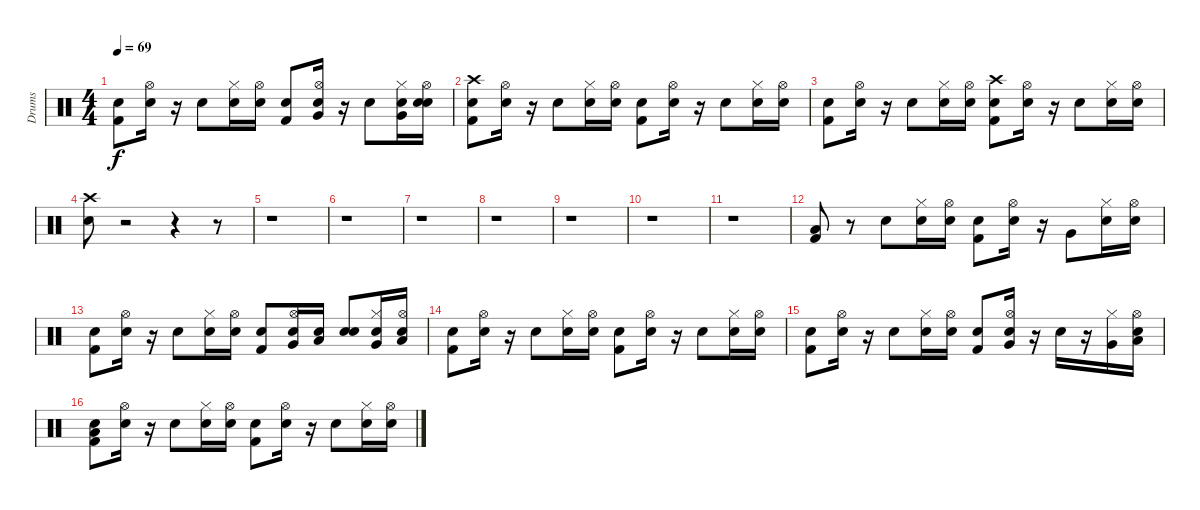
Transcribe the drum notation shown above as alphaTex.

\track ("Drums" "Drums") {instrument percussion}
\staff {score}
\articulation defaults
\ts (4 4)
\tempo 69
\clef neutral
\ks c
("Snare (hit)" "Kick (hit) 2").8{dy f} ("Snare (hit)" "Hi-Hat (open)").16 r.16 "Snare (hit) 2".8 ("Snare (hit)" "Hi-Hat (closed)").16 ("Snare (hit)" "Hi-Hat (open)").16 ("Snare (hit)" "Kick (hit) 2").8 ("Snare (hit)" "Very Low Tom (hit)" "Hi-Hat (open)").16 r.16 "Snare (hit) 2".8 ("Snare (hit)" "Very Low Tom (hit)" "Hi-Hat (closed)").16 ("Snare (hit)" "Snare (hit) 2" "Hi-Hat (open)").16 |
("Snare (hit)" "Crash high (hit)" "Kick (hit) 2").8 ("Snare (hit)" "Hi-Hat (open)").16 r.16 "Snare (hit) 2".8 ("Snare (hit)" "Hi-Hat (closed)").16 ("Snare (hit)" "Hi-Hat (open)").16 ("Snare (hit)" "Kick (hit) 2").8 ("Snare (hit)" "Hi-Hat (open)").16 r.16 "Snare (hit) 2".8 ("Snare (hit)" "Hi-Hat (closed)").16 ("Snare (hit)" "Hi-Hat (open)").16 |
("Snare (hit)" "Kick (hit) 2").8 ("Snare (hit)" "Hi-Hat (open)").16 r.16 "Snare (hit) 2".8 ("Snare (hit)" "Hi-Hat (closed)").16 ("Snare (hit)" "Hi-Hat (open)").16 ("Snare (hit)" "Crash high (hit)" "Kick (hit) 2").8 ("Snare (hit)" "Hi-Hat (open)").16 r.16 "Snare (hit) 2".8 ("Snare (hit)" "Hi-Hat (closed)").16 ("Snare (hit)" "Hi-Hat (open)").16 |
("Snare (hit)" "Crash high (hit)").8 r.2 r.4 r.8 |
r.1 |
r.1 |
r.1 |
r.1 |
r.1 |
r.1 |
r.1 |
("Low Floor Tom (hit)" "Kick (hit) 2").8 r.8 "Snare (hit) 2".8 ("Snare (hit)" "Hi-Hat (closed)").16 ("Snare (hit)" "Hi-Hat (open)").16 ("Snare (hit)" "Kick (hit) 2").8 ("Snare (hit)" "Hi-Hat (open)").16 r.16 "Very Low Tom (hit)".8 ("Snare (hit)" "Hi-Hat (closed)").16 ("Snare (hit)" "Hi-Hat (open)").16 |
("Snare (hit)" "Kick (hit) 2").8 ("Snare (hit)" "Hi-Hat (open)").16 r.16 "Snare (hit) 2".8 ("Snare (hit)" "Hi-Hat (closed)").16 ("Snare (hit)" "Hi-Hat (open)").16 ("Snare (hit)" "Kick (hit) 2").8 ("Snare (hit)" "Very Low Tom (hit)" "Hi-Hat (open)").16 ("Snare (hit)" "Low Floor Tom (hit)").16 ("Snare (hit)" "Snare (hit) 2").8 ("Snare (hit)" "Very Low Tom (hit)" "Hi-Hat (closed)").16 ("Snare (hit)" "Low Tom (hit)" "Hi-Hat (open)").16 |
("Snare (hit)" "Kick (hit) 2").8 ("Snare (hit)" "Hi-Hat (open)").16 r.16 "Snare (hit) 2".8 ("Snare (hit)" "Hi-Hat (closed)").16 ("Snare (hit)" "Hi-Hat (open)").16 ("Snare (hit)" "Kick (hit) 2").8 ("Snare (hit)" "Hi-Hat (open)").16 r.16 "Snare (hit) 2".8 ("Snare (hit)" "Hi-Hat (closed)").16 ("Snare (hit)" "Hi-Hat (open)").16 |
("Snare (hit)" "Kick (hit) 2").8 ("Snare (hit)" "Hi-Hat (open)").16 r.16 "Snare (hit) 2".8 ("Snare (hit)" "Hi-Hat (closed)").16 ("Snare (hit)" "Hi-Hat (open)").16 ("Snare (hit)" "Kick (hit) 2").8 ("Snare (hit)" "Very Low Tom (hit)" "Hi-Hat (open)").16 r.16 "Snare (hit) 2".16 r.16 ("Very Low Tom (hit)" "Hi-Hat (closed)").16 ("Snare (hit)" "Low Tom (hit)" "Hi-Hat (open)").16 |
("Snare (hit)" "Low Floor Tom (hit)" "Kick (hit) 2").8 ("Snare (hit)" "Hi-Hat (open)").16 r.16 "Snare (hit) 2".8 ("Snare (hit)" "Hi-Hat (closed)").16 ("Snare (hit)" "Hi-Hat (open)").16 ("Snare (hit)" "Kick (hit) 2").8 ("Snare (hit)" "Hi-Hat (open)").16 r.16 "Snare (hit) 2".8 ("Snare (hit)" "Hi-Hat (closed)").16 ("Snare (hit)" "Hi-Hat (open)").16
